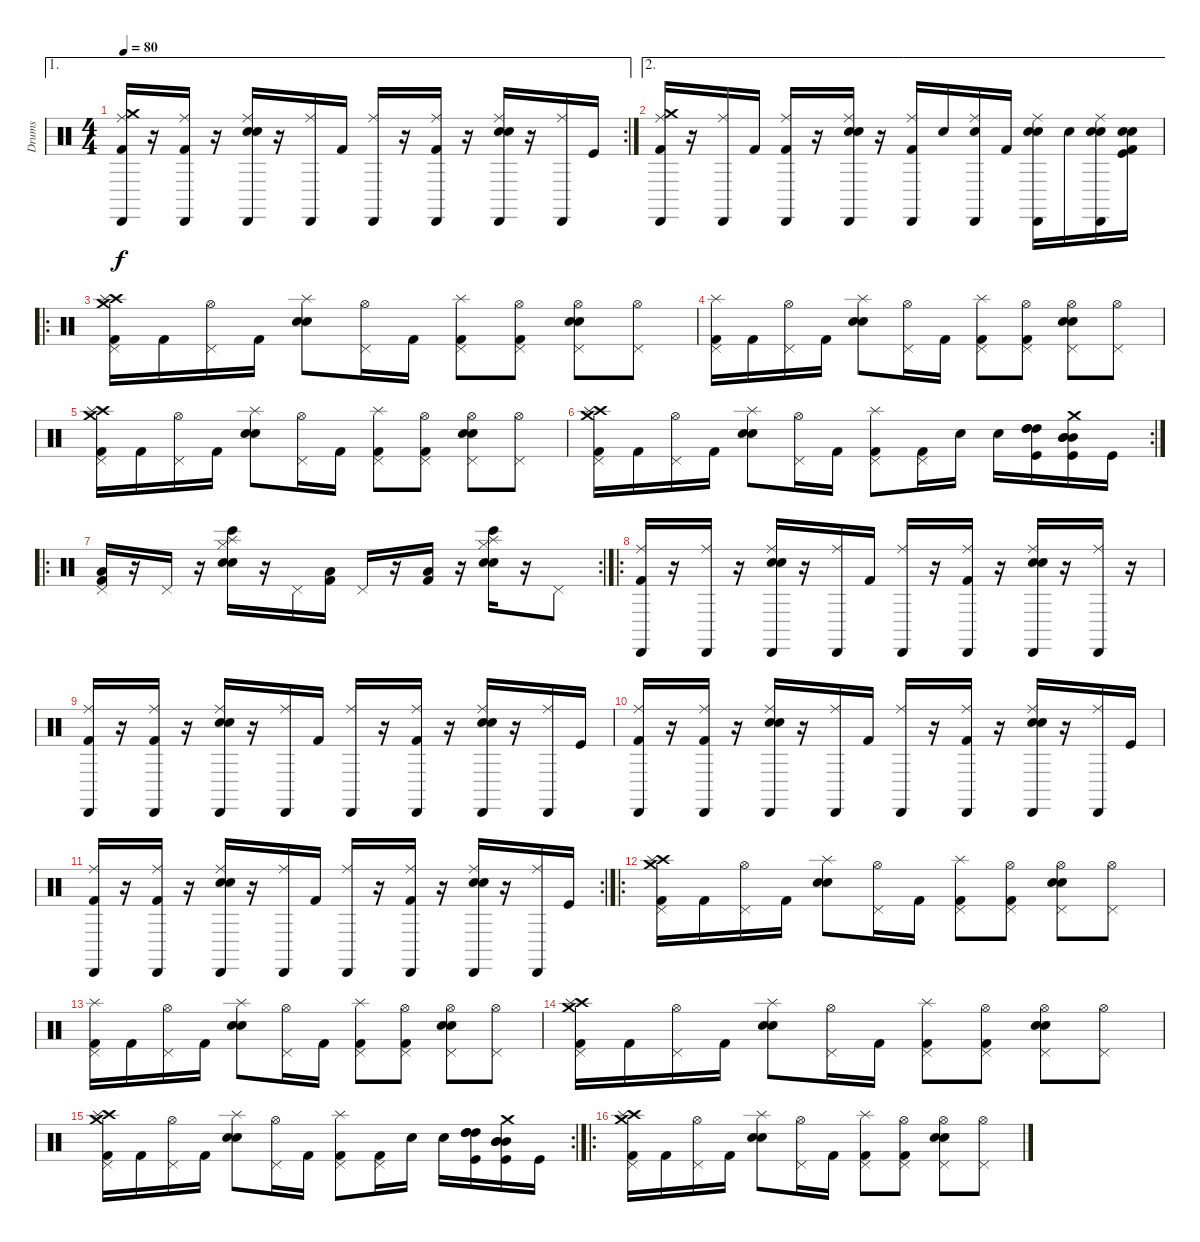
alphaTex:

\track ("Drums" "Drums") {instrument percussion}
\staff {score}
\articulation defaults
\ae 1
\rc 2
\ts (4 4)
\tempo 80
\clef neutral
\ks c
("Kick (hit) 2" "Crash medium (hit)" "Ride (middle)" "Cabasa (hit)").16{dy f} r.16 ("Kick (hit) 2" "Ride (middle)" "Cabasa (hit)").16 r.16 ("Snare (hit) 2" "Electric Snare (hit)" "Ride (middle)" "Cabasa (hit)").16 r.16 ("Ride (middle)" "Cabasa (hit)").16 "Kick (hit) 2".16 ("Ride (middle)" "Cabasa (hit)").16 r.16 ("Kick (hit) 2" "Ride (middle)" "Cabasa (hit)").16 r.16 ("Snare (hit) 2" "Electric Snare (hit)" "Ride (middle)" "Cabasa (hit)").16 r.16 ("Ride (middle)" "Cabasa (hit)").16 "Kick (hit)".16 |
\ae 2
("Kick (hit) 2" "Crash medium (hit)" "Ride (middle)" "Cabasa (hit)").16 r.16 ("Ride (middle)" "Cabasa (hit)").16 "Kick (hit) 2".16 ("Kick (hit) 2" "Ride (middle)" "Cabasa (hit)").16 r.16 ("Snare (hit) 2" "Electric Snare (hit)" "Ride (middle)" "Cabasa (hit)").16 r.16 ("Kick (hit) 2" "Ride (middle)" "Cabasa (hit)").16 "Electric Snare (hit)".16 ("Electric Snare (hit)" "Ride (middle)" "Cabasa (hit)").16 "Kick (hit) 2".16 ("Snare (hit) 2" "Electric Snare (hit)" "Ride (middle)" "Cabasa (hit)").16 "Electric Snare (hit)".16 ("Snare (hit) 2" "Electric Snare (hit)" "Ride (middle)" "Cabasa (hit)").16 ("Kick (hit) 2" "Kick (hit)" "Snare (hit) 2" "Electric Snare (hit)").16 |
\ro
("Kick (hit) 2" "Crash high (hit)" "Pedal Hi-Hat (hit)" "Splash (hit)" "Crash medium (hit)").16 "Kick (hit) 2".16 ("Pedal Hi-Hat (hit)" "Hi-Hat (open)").16 "Kick (hit) 2".16 ("Snare (hit) 2" "Electric Snare (hit)" "Splash (hit)").8 ("Pedal Hi-Hat (hit)" "Hi-Hat (open)").16 "Kick (hit) 2".16 ("Kick (hit) 2" "Pedal Hi-Hat (hit)" "Splash (hit)").8 ("Kick (hit) 2" "Pedal Hi-Hat (hit)" "Hi-Hat (open)").8 ("Snare (hit) 2" "Electric Snare (hit)" "Pedal Hi-Hat (hit)" "Hi-Hat (open)").8 ("Pedal Hi-Hat (hit)" "Hi-Hat (open)").8 |
("Kick (hit) 2" "Pedal Hi-Hat (hit)" "Splash (hit)").16 "Kick (hit) 2".16 ("Pedal Hi-Hat (hit)" "Hi-Hat (open)").16 "Kick (hit) 2".16 ("Snare (hit) 2" "Electric Snare (hit)" "Splash (hit)").8 ("Pedal Hi-Hat (hit)" "Hi-Hat (open)").16 "Kick (hit) 2".16 ("Kick (hit) 2" "Pedal Hi-Hat (hit)" "Splash (hit)").8 ("Kick (hit) 2" "Pedal Hi-Hat (hit)" "Hi-Hat (open)").8 ("Snare (hit) 2" "Electric Snare (hit)" "Pedal Hi-Hat (hit)" "Hi-Hat (open)").8 ("Pedal Hi-Hat (hit)" "Hi-Hat (open)").8 |
("Kick (hit) 2" "Crash high (hit)" "Pedal Hi-Hat (hit)" "Splash (hit)" "Crash medium (hit)").16 "Kick (hit) 2".16 ("Pedal Hi-Hat (hit)" "Hi-Hat (open)").16 "Kick (hit) 2".16 ("Snare (hit) 2" "Electric Snare (hit)" "Splash (hit)").8 ("Pedal Hi-Hat (hit)" "Hi-Hat (open)").16 "Kick (hit) 2".16 ("Kick (hit) 2" "Pedal Hi-Hat (hit)" "Splash (hit)").8 ("Kick (hit) 2" "Pedal Hi-Hat (hit)" "Hi-Hat (open)").8 ("Snare (hit) 2" "Electric Snare (hit)" "Pedal Hi-Hat (hit)" "Hi-Hat (open)").8 ("Pedal Hi-Hat (hit)" "Hi-Hat (open)").8 |
\rc 2
("Kick (hit) 2" "Crash high (hit)" "Pedal Hi-Hat (hit)" "Splash (hit)" "Crash medium (hit)").16 "Kick (hit) 2".16 ("Pedal Hi-Hat (hit)" "Hi-Hat (open)").16 "Kick (hit) 2".16 ("Snare (hit) 2" "Electric Snare (hit)" "Splash (hit)").8 ("Pedal Hi-Hat (hit)" "Hi-Hat (open)").16 "Kick (hit) 2".16 ("Kick (hit) 2" "Pedal Hi-Hat (hit)" "Splash (hit)").8 ("Kick (hit) 2" "Pedal Hi-Hat (hit)").16 "Electric Snare (hit)".16 "Electric Snare (hit)".16 ("Kick (hit)" "High Tom (hit)" "High Tom (hit)" "High Tom (hit)").16 ("Kick (hit)" "Mid Tom (hit)" "Mid Tom (hit)" "Mid Tom (hit)" "Crash medium (hit)").16 "Kick (hit)".16 |
\ro
\rc 2
("Kick (hit) 2" "Low Floor Tom (hit)" "Pedal Hi-Hat (hit)").16 r.16 "Pedal Hi-Hat (hit)".16 r.16 ("Electric Snare (hit)" "Bongo High (hit)" "Hand Clap (hit)" "Hi-Hat (closed)" "Splash (hit)").16 r.16 "Pedal Hi-Hat (hit)".16 ("Kick (hit) 2" "Low Floor Tom (hit)").16 "Pedal Hi-Hat (hit)".16 r.16 ("Kick (hit) 2" "Low Floor Tom (hit)").16 r.16 ("Electric Snare (hit)" "Bongo High (hit)" "Hand Clap (hit)" "Hi-Hat (closed)" "Splash (hit)").16 r.16 "Pedal Hi-Hat (hit)".8 |
\ro
("Kick (hit) 2" "Ride (middle)" "Cabasa (hit)").16 r.16 ("Ride (middle)" "Cabasa (hit)").16 r.16 ("Snare (hit) 2" "Electric Snare (hit)" "Ride (middle)" "Cabasa (hit)").16 r.16 ("Ride (middle)" "Cabasa (hit)").16 "Kick (hit) 2".16 ("Ride (middle)" "Cabasa (hit)").16 r.16 ("Kick (hit) 2" "Ride (middle)" "Cabasa (hit)").16 r.16 ("Snare (hit) 2" "Electric Snare (hit)" "Ride (middle)" "Cabasa (hit)").16 r.16 ("Ride (middle)" "Cabasa (hit)").16 r.16 |
("Kick (hit) 2" "Ride (middle)" "Cabasa (hit)").16 r.16 ("Kick (hit) 2" "Ride (middle)" "Cabasa (hit)").16 r.16 ("Snare (hit) 2" "Electric Snare (hit)" "Ride (middle)" "Cabasa (hit)").16 r.16 ("Ride (middle)" "Cabasa (hit)").16 "Kick (hit) 2".16 ("Ride (middle)" "Cabasa (hit)").16 r.16 ("Kick (hit) 2" "Ride (middle)" "Cabasa (hit)").16 r.16 ("Snare (hit) 2" "Electric Snare (hit)" "Ride (middle)" "Cabasa (hit)").16 r.16 ("Ride (middle)" "Cabasa (hit)").16 "Kick (hit)".16 |
("Kick (hit) 2" "Ride (middle)" "Cabasa (hit)").16 r.16 ("Kick (hit) 2" "Ride (middle)" "Cabasa (hit)").16 r.16 ("Snare (hit) 2" "Electric Snare (hit)" "Ride (middle)" "Cabasa (hit)").16 r.16 ("Ride (middle)" "Cabasa (hit)").16 "Kick (hit) 2".16 ("Ride (middle)" "Cabasa (hit)").16 r.16 ("Kick (hit) 2" "Ride (middle)" "Cabasa (hit)").16 r.16 ("Snare (hit) 2" "Electric Snare (hit)" "Ride (middle)" "Cabasa (hit)").16 r.16 ("Ride (middle)" "Cabasa (hit)").16 "Kick (hit)".16 |
\rc 2
("Kick (hit) 2" "Ride (middle)" "Cabasa (hit)").16 r.16 ("Kick (hit) 2" "Ride (middle)" "Cabasa (hit)").16 r.16 ("Snare (hit) 2" "Electric Snare (hit)" "Ride (middle)" "Cabasa (hit)").16 r.16 ("Ride (middle)" "Cabasa (hit)").16 "Kick (hit) 2".16 ("Ride (middle)" "Cabasa (hit)").16 r.16 ("Kick (hit) 2" "Ride (middle)" "Cabasa (hit)").16 r.16 ("Snare (hit) 2" "Electric Snare (hit)" "Ride (middle)" "Cabasa (hit)").16 r.16 ("Ride (middle)" "Cabasa (hit)").16 "Kick (hit)".16 |
\ro
("Kick (hit) 2" "Crash high (hit)" "Pedal Hi-Hat (hit)" "Splash (hit)" "Crash medium (hit)").16 "Kick (hit) 2".16 ("Pedal Hi-Hat (hit)" "Hi-Hat (open)").16 "Kick (hit) 2".16 ("Snare (hit) 2" "Electric Snare (hit)" "Splash (hit)").8 ("Pedal Hi-Hat (hit)" "Hi-Hat (open)").16 "Kick (hit) 2".16 ("Kick (hit) 2" "Pedal Hi-Hat (hit)" "Splash (hit)").8 ("Kick (hit) 2" "Pedal Hi-Hat (hit)" "Hi-Hat (open)").8 ("Snare (hit) 2" "Electric Snare (hit)" "Pedal Hi-Hat (hit)" "Hi-Hat (open)").8 ("Pedal Hi-Hat (hit)" "Hi-Hat (open)").8 |
("Kick (hit) 2" "Pedal Hi-Hat (hit)" "Splash (hit)").16 "Kick (hit) 2".16 ("Pedal Hi-Hat (hit)" "Hi-Hat (open)").16 "Kick (hit) 2".16 ("Snare (hit) 2" "Electric Snare (hit)" "Splash (hit)").8 ("Pedal Hi-Hat (hit)" "Hi-Hat (open)").16 "Kick (hit) 2".16 ("Kick (hit) 2" "Pedal Hi-Hat (hit)" "Splash (hit)").8 ("Kick (hit) 2" "Pedal Hi-Hat (hit)" "Hi-Hat (open)").8 ("Snare (hit) 2" "Electric Snare (hit)" "Pedal Hi-Hat (hit)" "Hi-Hat (open)").8 ("Pedal Hi-Hat (hit)" "Hi-Hat (open)").8 |
("Kick (hit) 2" "Crash high (hit)" "Pedal Hi-Hat (hit)" "Splash (hit)" "Crash medium (hit)").16 "Kick (hit) 2".16 ("Pedal Hi-Hat (hit)" "Hi-Hat (open)").16 "Kick (hit) 2".16 ("Snare (hit) 2" "Electric Snare (hit)" "Splash (hit)").8 ("Pedal Hi-Hat (hit)" "Hi-Hat (open)").16 "Kick (hit) 2".16 ("Kick (hit) 2" "Pedal Hi-Hat (hit)" "Splash (hit)").8 ("Kick (hit) 2" "Pedal Hi-Hat (hit)" "Hi-Hat (open)").8 ("Snare (hit) 2" "Electric Snare (hit)" "Pedal Hi-Hat (hit)" "Hi-Hat (open)").8 ("Pedal Hi-Hat (hit)" "Hi-Hat (open)").8 |
\rc 2
("Kick (hit) 2" "Crash high (hit)" "Pedal Hi-Hat (hit)" "Splash (hit)" "Crash medium (hit)").16 "Kick (hit) 2".16 ("Pedal Hi-Hat (hit)" "Hi-Hat (open)").16 "Kick (hit) 2".16 ("Snare (hit) 2" "Electric Snare (hit)" "Splash (hit)").8 ("Pedal Hi-Hat (hit)" "Hi-Hat (open)").16 "Kick (hit) 2".16 ("Kick (hit) 2" "Pedal Hi-Hat (hit)" "Splash (hit)").8 ("Kick (hit) 2" "Pedal Hi-Hat (hit)").16 "Electric Snare (hit)".16 "Electric Snare (hit)".16 ("Kick (hit)" "High Tom (hit)" "High Tom (hit)" "High Tom (hit)").16 ("Kick (hit)" "Mid Tom (hit)" "Mid Tom (hit)" "Mid Tom (hit)" "Crash medium (hit)").16 "Kick (hit)".16 |
\ro
("Kick (hit) 2" "Crash high (hit)" "Pedal Hi-Hat (hit)" "Splash (hit)" "Crash medium (hit)").16 "Kick (hit) 2".16 ("Pedal Hi-Hat (hit)" "Hi-Hat (open)").16 "Kick (hit) 2".16 ("Snare (hit) 2" "Electric Snare (hit)" "Splash (hit)").8 ("Pedal Hi-Hat (hit)" "Hi-Hat (open)").16 "Kick (hit) 2".16 ("Kick (hit) 2" "Pedal Hi-Hat (hit)" "Splash (hit)").8 ("Kick (hit) 2" "Pedal Hi-Hat (hit)" "Hi-Hat (open)").8 ("Snare (hit) 2" "Electric Snare (hit)" "Pedal Hi-Hat (hit)" "Hi-Hat (open)").8 ("Pedal Hi-Hat (hit)" "Hi-Hat (open)").8
